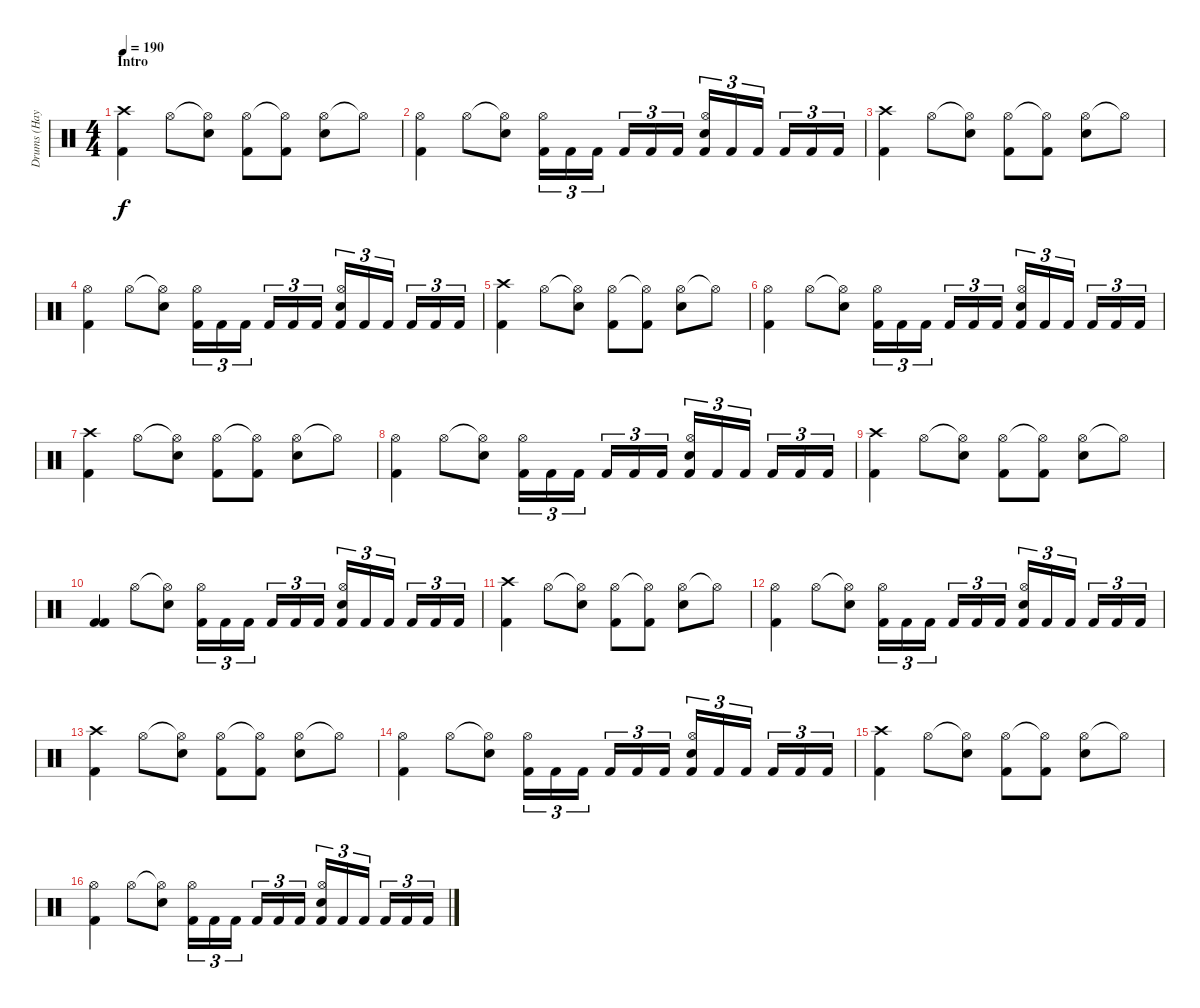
\track ("Drums (Hayden)" "Drums (Hay") {instrument percussion}
\staff {score}
\articulation defaults
\ts (4 4)
\section ("" "Intro")
\tempo 190
\clef neutral
\ks c
("Crash high (hit)" "Kick (hit) 2").4{dy f} "Hi-Hat (open)".8 ("Hi-Hat (open)"{t} "Electric Snare (hit)").8 ("Hi-Hat (open)" "Kick (hit) 2").8 ("Hi-Hat (open)"{t} "Kick (hit) 2").8 ("Hi-Hat (open)" "Electric Snare (hit)").8 "Hi-Hat (open)"{t}.8 |
("Hi-Hat (open)" "Kick (hit) 2").4 "Hi-Hat (open)".8 ("Hi-Hat (open)"{t} "Electric Snare (hit)").8 ("Kick (hit) 2" "Hi-Hat (open)").16{tu (3 2)} "Kick (hit) 2".16{tu (3 2)} "Kick (hit) 2".16{tu (3 2)} "Kick (hit) 2".16{tu (3 2)} "Kick (hit) 2".16{tu (3 2)} "Kick (hit) 2".16{tu (3 2)} ("Kick (hit) 2" "Hi-Hat (open)" "Electric Snare (hit)").16{tu (3 2)} "Kick (hit) 2".16{tu (3 2)} "Kick (hit) 2".16{tu (3 2)} "Kick (hit) 2".16{tu (3 2)} "Kick (hit) 2".16{tu (3 2)} "Kick (hit) 2".16{tu (3 2)} |
("Crash high (hit)" "Kick (hit) 2").4 "Hi-Hat (open)".8 ("Hi-Hat (open)"{t} "Electric Snare (hit)").8 ("Hi-Hat (open)" "Kick (hit) 2").8 ("Hi-Hat (open)"{t} "Kick (hit) 2").8 ("Hi-Hat (open)" "Electric Snare (hit)").8 "Hi-Hat (open)"{t}.8 |
("Hi-Hat (open)" "Kick (hit) 2").4 "Hi-Hat (open)".8 ("Hi-Hat (open)"{t} "Electric Snare (hit)").8 ("Kick (hit) 2" "Hi-Hat (open)").16{tu (3 2)} "Kick (hit) 2".16{tu (3 2)} "Kick (hit) 2".16{tu (3 2)} "Kick (hit) 2".16{tu (3 2)} "Kick (hit) 2".16{tu (3 2)} "Kick (hit) 2".16{tu (3 2)} ("Kick (hit) 2" "Hi-Hat (open)" "Electric Snare (hit)").16{tu (3 2)} "Kick (hit) 2".16{tu (3 2)} "Kick (hit) 2".16{tu (3 2)} "Kick (hit) 2".16{tu (3 2)} "Kick (hit) 2".16{tu (3 2)} "Kick (hit) 2".16{tu (3 2)} |
("Crash high (hit)" "Kick (hit) 2").4 "Hi-Hat (open)".8 ("Hi-Hat (open)"{t} "Electric Snare (hit)").8 ("Hi-Hat (open)" "Kick (hit) 2").8 ("Hi-Hat (open)"{t} "Kick (hit) 2").8 ("Hi-Hat (open)" "Electric Snare (hit)").8 "Hi-Hat (open)"{t}.8 |
("Hi-Hat (open)" "Kick (hit) 2").4 "Hi-Hat (open)".8 ("Hi-Hat (open)"{t} "Electric Snare (hit)").8 ("Kick (hit) 2" "Hi-Hat (open)").16{tu (3 2)} "Kick (hit) 2".16{tu (3 2)} "Kick (hit) 2".16{tu (3 2)} "Kick (hit) 2".16{tu (3 2)} "Kick (hit) 2".16{tu (3 2)} "Kick (hit) 2".16{tu (3 2)} ("Kick (hit) 2" "Hi-Hat (open)" "Electric Snare (hit)").16{tu (3 2)} "Kick (hit) 2".16{tu (3 2)} "Kick (hit) 2".16{tu (3 2)} "Kick (hit) 2".16{tu (3 2)} "Kick (hit) 2".16{tu (3 2)} "Kick (hit) 2".16{tu (3 2)} |
("Crash high (hit)" "Kick (hit) 2").4 "Hi-Hat (open)".8 ("Hi-Hat (open)"{t} "Electric Snare (hit)").8 ("Hi-Hat (open)" "Kick (hit) 2").8 ("Hi-Hat (open)"{t} "Kick (hit) 2").8 ("Hi-Hat (open)" "Electric Snare (hit)").8 "Hi-Hat (open)"{t}.8 |
("Hi-Hat (open)" "Kick (hit) 2").4 "Hi-Hat (open)".8 ("Hi-Hat (open)"{t} "Electric Snare (hit)").8 ("Kick (hit) 2" "Hi-Hat (open)").16{tu (3 2)} "Kick (hit) 2".16{tu (3 2)} "Kick (hit) 2".16{tu (3 2)} "Kick (hit) 2".16{tu (3 2)} "Kick (hit) 2".16{tu (3 2)} "Kick (hit) 2".16{tu (3 2)} ("Kick (hit) 2" "Hi-Hat (open)" "Electric Snare (hit)").16{tu (3 2)} "Kick (hit) 2".16{tu (3 2)} "Kick (hit) 2".16{tu (3 2)} "Kick (hit) 2".16{tu (3 2)} "Kick (hit) 2".16{tu (3 2)} "Kick (hit) 2".16{tu (3 2)} |
("Crash high (hit)" "Kick (hit) 2").4 "Hi-Hat (open)".8 ("Hi-Hat (open)"{t} "Electric Snare (hit)").8 ("Hi-Hat (open)" "Kick (hit) 2").8 ("Hi-Hat (open)"{t} "Kick (hit) 2").8 ("Hi-Hat (open)" "Electric Snare (hit)").8 "Hi-Hat (open)"{t}.8 |
("Kick (hit) 2" "Kick (hit) 2").4 "Hi-Hat (open)".8 ("Hi-Hat (open)"{t} "Electric Snare (hit)").8 ("Kick (hit) 2" "Hi-Hat (open)").16{tu (3 2)} "Kick (hit) 2".16{tu (3 2)} "Kick (hit) 2".16{tu (3 2)} "Kick (hit) 2".16{tu (3 2)} "Kick (hit) 2".16{tu (3 2)} "Kick (hit) 2".16{tu (3 2)} ("Kick (hit) 2" "Hi-Hat (open)" "Electric Snare (hit)").16{tu (3 2)} "Kick (hit) 2".16{tu (3 2)} "Kick (hit) 2".16{tu (3 2)} "Kick (hit) 2".16{tu (3 2)} "Kick (hit) 2".16{tu (3 2)} "Kick (hit) 2".16{tu (3 2)} |
("Crash high (hit)" "Kick (hit) 2").4 "Hi-Hat (open)".8 ("Hi-Hat (open)"{t} "Electric Snare (hit)").8 ("Hi-Hat (open)" "Kick (hit) 2").8 ("Hi-Hat (open)"{t} "Kick (hit) 2").8 ("Hi-Hat (open)" "Electric Snare (hit)").8 "Hi-Hat (open)"{t}.8 |
("Hi-Hat (open)" "Kick (hit) 2").4 "Hi-Hat (open)".8 ("Hi-Hat (open)"{t} "Electric Snare (hit)").8 ("Kick (hit) 2" "Hi-Hat (open)").16{tu (3 2)} "Kick (hit) 2".16{tu (3 2)} "Kick (hit) 2".16{tu (3 2)} "Kick (hit) 2".16{tu (3 2)} "Kick (hit) 2".16{tu (3 2)} "Kick (hit) 2".16{tu (3 2)} ("Kick (hit) 2" "Hi-Hat (open)" "Electric Snare (hit)").16{tu (3 2)} "Kick (hit) 2".16{tu (3 2)} "Kick (hit) 2".16{tu (3 2)} "Kick (hit) 2".16{tu (3 2)} "Kick (hit) 2".16{tu (3 2)} "Kick (hit) 2".16{tu (3 2)} |
("Crash high (hit)" "Kick (hit) 2").4 "Hi-Hat (open)".8 ("Hi-Hat (open)"{t} "Electric Snare (hit)").8 ("Hi-Hat (open)" "Kick (hit) 2").8 ("Hi-Hat (open)"{t} "Kick (hit) 2").8 ("Hi-Hat (open)" "Electric Snare (hit)").8 "Hi-Hat (open)"{t}.8 |
("Hi-Hat (open)" "Kick (hit) 2").4 "Hi-Hat (open)".8 ("Hi-Hat (open)"{t} "Electric Snare (hit)").8 ("Kick (hit) 2" "Hi-Hat (open)").16{tu (3 2)} "Kick (hit) 2".16{tu (3 2)} "Kick (hit) 2".16{tu (3 2)} "Kick (hit) 2".16{tu (3 2)} "Kick (hit) 2".16{tu (3 2)} "Kick (hit) 2".16{tu (3 2)} ("Kick (hit) 2" "Hi-Hat (open)" "Electric Snare (hit)").16{tu (3 2)} "Kick (hit) 2".16{tu (3 2)} "Kick (hit) 2".16{tu (3 2)} "Kick (hit) 2".16{tu (3 2)} "Kick (hit) 2".16{tu (3 2)} "Kick (hit) 2".16{tu (3 2)} |
("Crash high (hit)" "Kick (hit) 2").4 "Hi-Hat (open)".8 ("Hi-Hat (open)"{t} "Electric Snare (hit)").8 ("Hi-Hat (open)" "Kick (hit) 2").8 ("Hi-Hat (open)"{t} "Kick (hit) 2").8 ("Hi-Hat (open)" "Electric Snare (hit)").8 "Hi-Hat (open)"{t}.8 |
("Hi-Hat (open)" "Kick (hit) 2").4 "Hi-Hat (open)".8 ("Hi-Hat (open)"{t} "Electric Snare (hit)").8 ("Kick (hit) 2" "Hi-Hat (open)").16{tu (3 2)} "Kick (hit) 2".16{tu (3 2)} "Kick (hit) 2".16{tu (3 2)} "Kick (hit) 2".16{tu (3 2)} "Kick (hit) 2".16{tu (3 2)} "Kick (hit) 2".16{tu (3 2)} ("Kick (hit) 2" "Hi-Hat (open)" "Electric Snare (hit)").16{tu (3 2)} "Kick (hit) 2".16{tu (3 2)} "Kick (hit) 2".16{tu (3 2)} "Kick (hit) 2".16{tu (3 2)} "Kick (hit) 2".16{tu (3 2)} "Kick (hit) 2".16{tu (3 2)}
